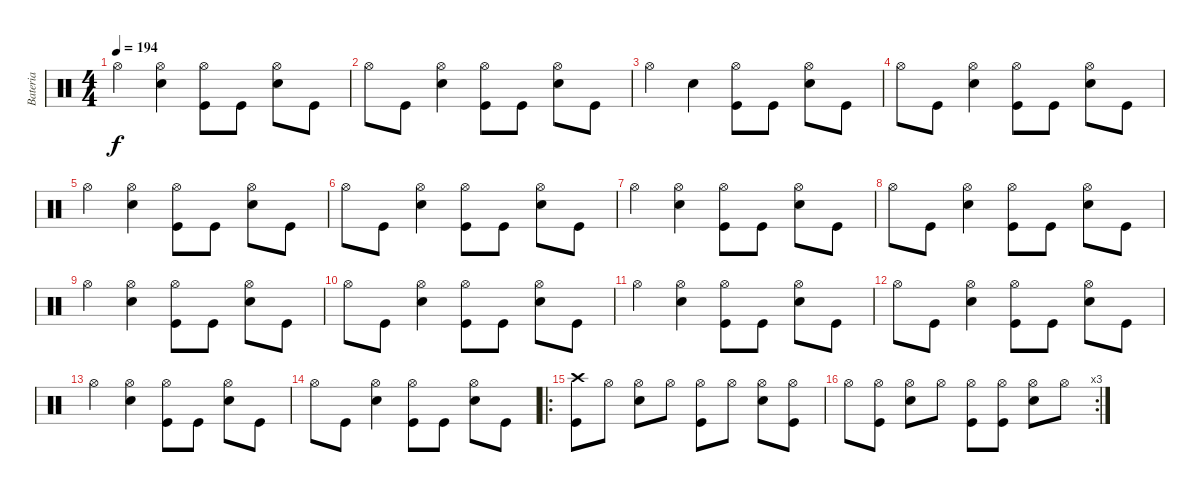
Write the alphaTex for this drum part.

\track ("Bateria" "Bateria") {instrument percussion}
\staff {score}
\articulation defaults
\ts (4 4)
\tempo 194
\clef neutral
\ks c "Hi-Hat (open)".4{dy f}
("Electric Snare (hit)" "Hi-Hat (open)").4 ("Hi-Hat (open)" "Kick (hit)").8 "Kick (hit)".8 ("Electric Snare (hit)" "Hi-Hat (open)").8 "Kick (hit)".8 |
"Hi-Hat (open)".8 "Kick (hit)".8 ("Electric Snare (hit)" "Hi-Hat (open)").4 ("Hi-Hat (open)" "Kick (hit)").8 "Kick (hit)".8 ("Electric Snare (hit)" "Hi-Hat (open)").8 "Kick (hit)".8 |
"Hi-Hat (open)".4 "Electric Snare (hit)".4 ("Hi-Hat (open)" "Kick (hit)").8 "Kick (hit)".8 ("Electric Snare (hit)" "Hi-Hat (open)").8 "Kick (hit)".8 |
"Hi-Hat (open)".8 "Kick (hit)".8 ("Electric Snare (hit)" "Hi-Hat (open)").4 ("Hi-Hat (open)" "Kick (hit)").8 "Kick (hit)".8 ("Electric Snare (hit)" "Hi-Hat (open)").8 "Kick (hit)".8 |
"Hi-Hat (open)".4 ("Electric Snare (hit)" "Hi-Hat (open)").4 ("Hi-Hat (open)" "Kick (hit)").8 "Kick (hit)".8 ("Electric Snare (hit)" "Hi-Hat (open)").8 "Kick (hit)".8 |
"Hi-Hat (open)".8 "Kick (hit)".8 ("Electric Snare (hit)" "Hi-Hat (open)").4 ("Hi-Hat (open)" "Kick (hit)").8 "Kick (hit)".8 ("Electric Snare (hit)" "Hi-Hat (open)").8 "Kick (hit)".8 |
"Hi-Hat (open)".4 ("Electric Snare (hit)" "Hi-Hat (open)").4 ("Hi-Hat (open)" "Kick (hit)").8 "Kick (hit)".8 ("Electric Snare (hit)" "Hi-Hat (open)").8 "Kick (hit)".8 |
"Hi-Hat (open)".8 "Kick (hit)".8 ("Electric Snare (hit)" "Hi-Hat (open)").4 ("Hi-Hat (open)" "Kick (hit)").8 "Kick (hit)".8 ("Electric Snare (hit)" "Hi-Hat (open)").8 "Kick (hit)".8 |
"Hi-Hat (open)".4 ("Electric Snare (hit)" "Hi-Hat (open)").4 ("Hi-Hat (open)" "Kick (hit)").8 "Kick (hit)".8 ("Electric Snare (hit)" "Hi-Hat (open)").8 "Kick (hit)".8 |
"Hi-Hat (open)".8 "Kick (hit)".8 ("Electric Snare (hit)" "Hi-Hat (open)").4 ("Hi-Hat (open)" "Kick (hit)").8 "Kick (hit)".8 ("Electric Snare (hit)" "Hi-Hat (open)").8 "Kick (hit)".8 |
"Hi-Hat (open)".4 ("Electric Snare (hit)" "Hi-Hat (open)").4 ("Hi-Hat (open)" "Kick (hit)").8 "Kick (hit)".8 ("Electric Snare (hit)" "Hi-Hat (open)").8 "Kick (hit)".8 |
"Hi-Hat (open)".8 "Kick (hit)".8 ("Electric Snare (hit)" "Hi-Hat (open)").4 ("Hi-Hat (open)" "Kick (hit)").8 "Kick (hit)".8 ("Electric Snare (hit)" "Hi-Hat (open)").8 "Kick (hit)".8 |
"Hi-Hat (open)".4 ("Electric Snare (hit)" "Hi-Hat (open)").4 ("Hi-Hat (open)" "Kick (hit)").8 "Kick (hit)".8 ("Electric Snare (hit)" "Hi-Hat (open)").8 "Kick (hit)".8 |
"Hi-Hat (open)".8 "Kick (hit)".8 ("Electric Snare (hit)" "Hi-Hat (open)").4 ("Hi-Hat (open)" "Kick (hit)").8 "Kick (hit)".8 ("Electric Snare (hit)" "Hi-Hat (open)").8 "Kick (hit)".8 |
\ro
("Crash high (hit)" "Kick (hit)").8 "Hi-Hat (open)".8 ("Electric Snare (hit)" "Hi-Hat (open)").8 "Hi-Hat (open)".8 ("Hi-Hat (open)" "Kick (hit)").8 "Hi-Hat (open)".8 ("Electric Snare (hit)" "Hi-Hat (open)").8 ("Hi-Hat (open)" "Kick (hit)").8 |
\rc 3 "Hi-Hat (open)".8
("Hi-Hat (open)" "Kick (hit)").8 ("Electric Snare (hit)" "Hi-Hat (open)").8 "Hi-Hat (open)".8 ("Hi-Hat (open)" "Kick (hit)").8 ("Hi-Hat (open)" "Kick (hit)").8 ("Electric Snare (hit)" "Hi-Hat (open)").8 "Hi-Hat (open)".8
